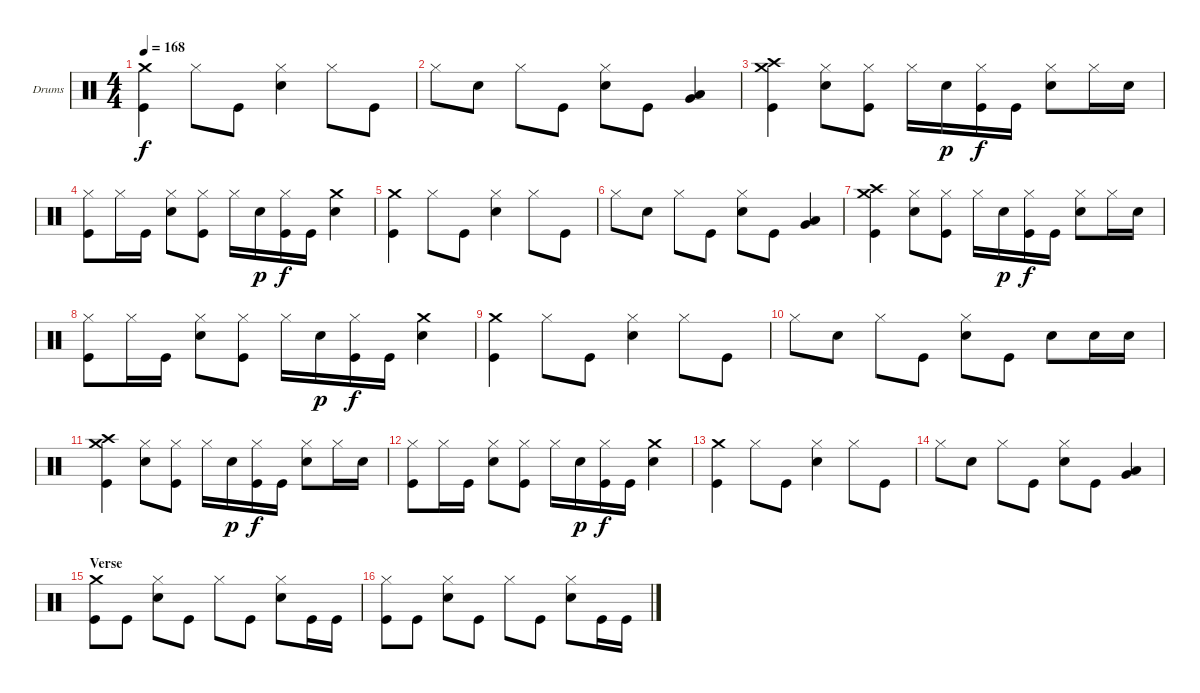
\bracketExtendMode groupsimilarinstruments
\firstSystemTrackNameOrientation horizontal
\otherSystemsTrackNameOrientation horizontal
\track ("Drumkit" "Drums") {instrument percussion}
\staff {score}
\articulation defaults
\ts (4 4)
\tempo 168
\clef neutral
\ks c
("Crash medium (hit)" "Kick (hit)").4{dy f} "Hi-Hat (closed)".8 "Kick (hit)".8 ("Hi-Hat (closed)" "Snare (hit) 2").4 "Hi-Hat (closed)".8 "Kick (hit)".8 |
"Hi-Hat (closed)".8 "Snare (hit) 2".8 "Hi-Hat (closed)".8 "Kick (hit)".8 ("Hi-Hat (closed)" "Snare (hit) 2").8 "Kick (hit)".8 ("Low Tom (hit)" "Very Low Tom (hit)").4 |
("Crash high (hit)" "Crash medium (hit)" "Kick (hit)").4 ("Hi-Hat (closed)" "Snare (hit) 2").8 ("Hi-Hat (closed)" "Kick (hit)").8 "Hi-Hat (closed)".16 "Snare (hit) 2".16{dy p} ("Hi-Hat (closed)" "Kick (hit)").16{dy f} "Kick (hit)".16 ("Hi-Hat (closed)" "Snare (hit) 2").8 "Hi-Hat (closed)".16 "Snare (hit) 2".16 |
("Hi-Hat (closed)" "Kick (hit)").8 "Hi-Hat (closed)".16 "Kick (hit)".16 ("Hi-Hat (closed)" "Snare (hit) 2").8 ("Hi-Hat (closed)" "Kick (hit)").8 "Hi-Hat (closed)".16 "Snare (hit) 2".16{dy p} ("Hi-Hat (closed)" "Kick (hit)").16{dy f} "Kick (hit)".16 ("Crash medium (hit)" "Snare (hit) 2").4 |
("Crash medium (hit)" "Kick (hit)").4 "Hi-Hat (closed)".8 "Kick (hit)".8 ("Hi-Hat (closed)" "Snare (hit) 2").4 "Hi-Hat (closed)".8 "Kick (hit)".8 |
"Hi-Hat (closed)".8 "Snare (hit) 2".8 "Hi-Hat (closed)".8 "Kick (hit)".8 ("Hi-Hat (closed)" "Snare (hit) 2").8 "Kick (hit)".8 ("Low Tom (hit)" "Very Low Tom (hit)").4 |
("Crash high (hit)" "Crash medium (hit)" "Kick (hit)").4 ("Hi-Hat (closed)" "Snare (hit) 2").8 ("Hi-Hat (closed)" "Kick (hit)").8 "Hi-Hat (closed)".16 "Snare (hit) 2".16{dy p} ("Hi-Hat (closed)" "Kick (hit)").16{dy f} "Kick (hit)".16 ("Hi-Hat (closed)" "Snare (hit) 2").8 "Hi-Hat (closed)".16 "Snare (hit) 2".16 |
("Hi-Hat (closed)" "Kick (hit)").8 "Hi-Hat (closed)".16 "Kick (hit)".16 ("Hi-Hat (closed)" "Snare (hit) 2").8 ("Hi-Hat (closed)" "Kick (hit)").8 "Hi-Hat (closed)".16 "Snare (hit) 2".16{dy p} ("Hi-Hat (closed)" "Kick (hit)").16{dy f} "Kick (hit)".16 ("Crash medium (hit)" "Snare (hit) 2").4 |
("Crash medium (hit)" "Kick (hit)").4 "Hi-Hat (closed)".8 "Kick (hit)".8 ("Hi-Hat (closed)" "Snare (hit) 2").4 "Hi-Hat (closed)".8 "Kick (hit)".8 |
"Hi-Hat (closed)".8 "Snare (hit) 2".8 "Hi-Hat (closed)".8 "Kick (hit)".8 ("Hi-Hat (closed)" "Snare (hit) 2").8 "Kick (hit)".8 "Snare (hit) 2".8 "Snare (hit) 2".16 "Snare (hit) 2".16 |
("Crash high (hit)" "Crash medium (hit)" "Kick (hit)").4 ("Hi-Hat (closed)" "Snare (hit) 2").8 ("Hi-Hat (closed)" "Kick (hit)").8 "Hi-Hat (closed)".16 "Snare (hit) 2".16{dy p} ("Hi-Hat (closed)" "Kick (hit)").16{dy f} "Kick (hit)".16 ("Hi-Hat (closed)" "Snare (hit) 2").8 "Hi-Hat (closed)".16 "Snare (hit) 2".16 |
("Hi-Hat (closed)" "Kick (hit)").8 "Hi-Hat (closed)".16 "Kick (hit)".16 ("Hi-Hat (closed)" "Snare (hit) 2").8 ("Hi-Hat (closed)" "Kick (hit)").8 "Hi-Hat (closed)".16 "Snare (hit) 2".16{dy p} ("Hi-Hat (closed)" "Kick (hit)").16{dy f} "Kick (hit)".16 ("Crash medium (hit)" "Snare (hit) 2").4 |
("Crash medium (hit)" "Kick (hit)").4 "Hi-Hat (closed)".8 "Kick (hit)".8 ("Hi-Hat (closed)" "Snare (hit) 2").4 "Hi-Hat (closed)".8 "Kick (hit)".8 |
"Hi-Hat (closed)".8 "Snare (hit) 2".8 "Hi-Hat (closed)".8 "Kick (hit)".8 ("Hi-Hat (closed)" "Snare (hit) 2").8 "Kick (hit)".8 ("Low Tom (hit)" "Very Low Tom (hit)").4 |
\section ("" "Verse")
("Crash medium (hit)" "Kick (hit)").8 "Kick (hit)".8 ("Hi-Hat (closed)" "Snare (hit) 2").8 "Kick (hit)".8 "Hi-Hat (closed)".8 "Kick (hit)".8 ("Hi-Hat (closed)" "Snare (hit) 2").8 "Kick (hit)".16 "Kick (hit)".16 |
("Hi-Hat (closed)" "Kick (hit)").8 "Kick (hit)".8 ("Hi-Hat (closed)" "Snare (hit) 2").8 "Kick (hit)".8 "Hi-Hat (closed)".8 "Kick (hit)".8 ("Hi-Hat (closed)" "Snare (hit) 2").8 "Kick (hit)".16 "Kick (hit)".16
